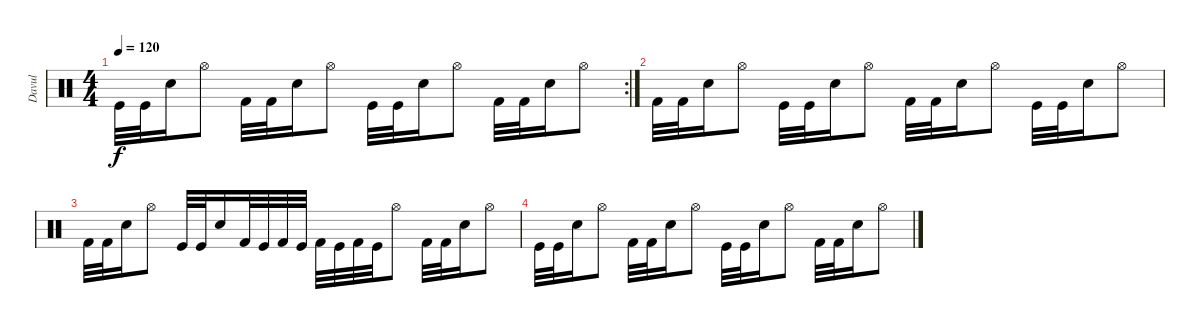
\track ("Davul" "Davul") {instrument percussion}
\staff {score}
\articulation defaults
\rc 2
\ts (4 4)
\tempo 120
\clef neutral
\ks c "Kick (hit)".32{dy f} "Kick (hit)".32 "Snare (hit) 2".16 "Hi-Hat (open)".8 "Kick (hit) 2".32 "Kick (hit) 2".32 "Electric Snare (hit)".16 "Hi-Hat (open)".8 "Kick (hit)".32 "Kick (hit)".32 "Snare (hit) 2".16 "Hi-Hat (open)".8 "Kick (hit) 2".32 "Kick (hit) 2".32 "Electric Snare (hit)".16 "Hi-Hat (open)".8
|
"Kick (hit) 2".32 "Kick (hit) 2".32 "Electric Snare (hit)".16 "Hi-Hat (open)".8 "Kick (hit)".32 "Kick (hit)".32 "Snare (hit) 2".16 "Hi-Hat (open)".8 "Kick (hit) 2".32 "Kick (hit) 2".32 "Electric Snare (hit)".16 "Hi-Hat (open)".8 "Kick (hit)".32 "Kick (hit)".32 "Snare (hit) 2".16 "Hi-Hat (open)".8 |
"Kick (hit) 2".32 "Kick (hit) 2".32 "Electric Snare (hit)".16 "Hi-Hat (open)".8 "Kick (hit)".32 "Kick (hit)".32 "Snare (hit) 2".16 "Kick (hit) 2".32 "Kick (hit)".32 "Kick (hit) 2".32 "Kick (hit)".32 "Kick (hit) 2".32 "Kick (hit)".32 "Kick (hit) 2".32 "Kick (hit)".32 "Hi-Hat (open)".8 "Kick (hit) 2".32 "Kick (hit) 2".32 "Electric Snare (hit)".16 "Hi-Hat (open)".8 |
"Kick (hit)".32 "Kick (hit)".32 "Snare (hit) 2".16 "Hi-Hat (open)".8 "Kick (hit) 2".32 "Kick (hit) 2".32 "Electric Snare (hit)".16 "Hi-Hat (open)".8 "Kick (hit)".32 "Kick (hit)".32 "Snare (hit) 2".16 "Hi-Hat (open)".8 "Kick (hit) 2".32 "Kick (hit) 2".32 "Electric Snare (hit)".16 "Hi-Hat (open)".8
